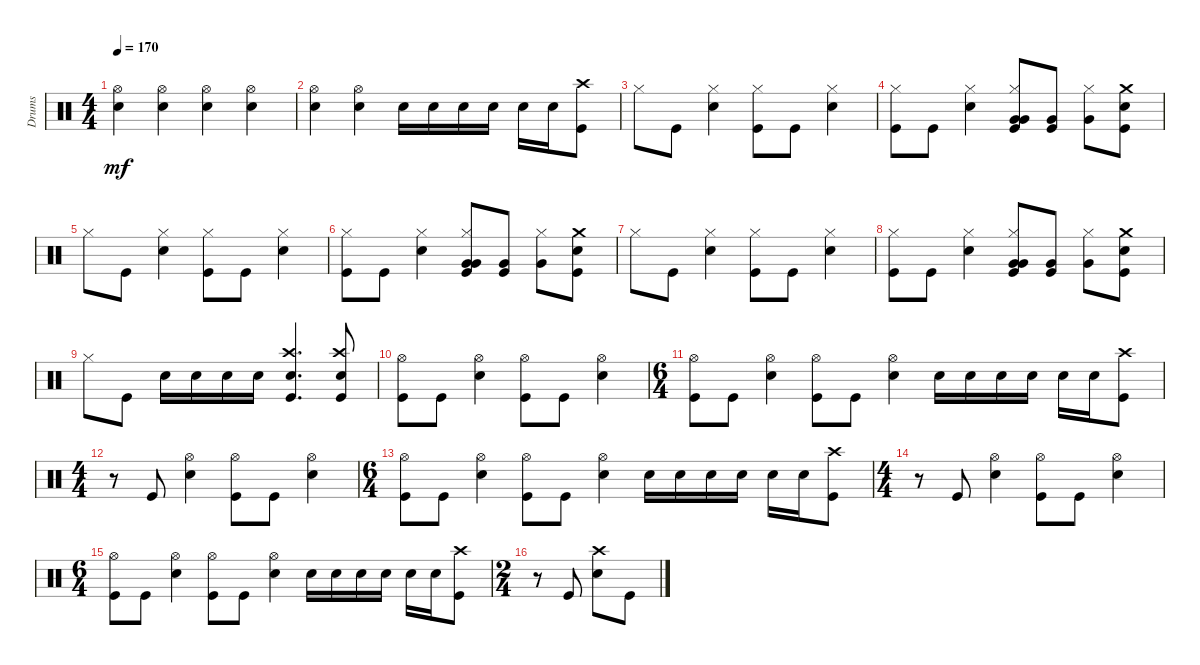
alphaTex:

\track ("Drums" "Drums") {instrument percussion}
\staff {score}
\articulation defaults
\ts (4 4)
\tempo 170
\clef neutral
\ks c
("Electric Snare (hit)" "Hi-Hat (open)").4{dy mf} ("Electric Snare (hit)" "Hi-Hat (open)").4 ("Electric Snare (hit)" "Hi-Hat (open)").4 ("Electric Snare (hit)" "Hi-Hat (open)").4 |
("Electric Snare (hit)" "Hi-Hat (open)").4 ("Electric Snare (hit)" "Hi-Hat (open)").4 "Electric Snare (hit)".16 "Electric Snare (hit)".16 "Electric Snare (hit)".16 "Electric Snare (hit)".16 "Electric Snare (hit)".16 "Electric Snare (hit)".16 ("Crash high (hit)" "Kick (hit)").8 |
"Hi-Hat (closed)".8 "Kick (hit)".8 ("Hi-Hat (closed)" "Electric Snare (hit)").4 ("Hi-Hat (closed)" "Kick (hit)").8 "Kick (hit)".8 ("Hi-Hat (closed)" "Electric Snare (hit)").4 |
("Hi-Hat (closed)" "Kick (hit)").8 "Kick (hit)".8 ("Hi-Hat (closed)" "Electric Snare (hit)").4 ("Very Low Tom (hit)" "Hi-Hat (closed)" "Very Low Tom (hit)" "Kick (hit)").8 ("Very Low Tom (hit)" "Kick (hit)").8 ("Hi-Hat (closed)" "Very Low Tom (hit)").8 ("Crash medium (hit)" "Electric Snare (hit)" "Kick (hit)").8 |
"Hi-Hat (closed)".8 "Kick (hit)".8 ("Hi-Hat (closed)" "Electric Snare (hit)").4 ("Hi-Hat (closed)" "Kick (hit)").8 "Kick (hit)".8 ("Hi-Hat (closed)" "Electric Snare (hit)").4 |
("Hi-Hat (closed)" "Kick (hit)").8 "Kick (hit)".8 ("Hi-Hat (closed)" "Electric Snare (hit)").4 ("Very Low Tom (hit)" "Hi-Hat (closed)" "Very Low Tom (hit)" "Kick (hit)").8 ("Very Low Tom (hit)" "Kick (hit)").8 ("Hi-Hat (closed)" "Very Low Tom (hit)").8 ("Crash medium (hit)" "Electric Snare (hit)" "Kick (hit)").8 |
"Hi-Hat (closed)".8 "Kick (hit)".8 ("Hi-Hat (closed)" "Electric Snare (hit)").4 ("Hi-Hat (closed)" "Kick (hit)").8 "Kick (hit)".8 ("Hi-Hat (closed)" "Electric Snare (hit)").4 |
("Hi-Hat (closed)" "Kick (hit)").8 "Kick (hit)".8 ("Hi-Hat (closed)" "Electric Snare (hit)").4 ("Very Low Tom (hit)" "Hi-Hat (closed)" "Very Low Tom (hit)" "Kick (hit)").8 ("Very Low Tom (hit)" "Kick (hit)").8 ("Hi-Hat (closed)" "Very Low Tom (hit)").8 ("Crash medium (hit)" "Electric Snare (hit)" "Kick (hit)").8 |
"Hi-Hat (closed)".8 "Kick (hit)".8 "Electric Snare (hit)".16 "Electric Snare (hit)".16 "Electric Snare (hit)".16 "Electric Snare (hit)".16 ("Crash high (hit)" "Electric Snare (hit)" "Kick (hit)").4{d} ("Crash high (hit)" "Electric Snare (hit)" "Kick (hit)").8 |
("Hi-Hat (open)" "Kick (hit)").8 "Kick (hit)".8 ("Hi-Hat (open)" "Electric Snare (hit)").4 ("Hi-Hat (open)" "Kick (hit)").8 "Kick (hit)".8 ("Hi-Hat (open)" "Electric Snare (hit)").4 |
\ts (6 4)
("Hi-Hat (open)" "Kick (hit)").8 "Kick (hit)".8 ("Hi-Hat (open)" "Electric Snare (hit)").4 ("Hi-Hat (open)" "Kick (hit)").8 "Kick (hit)".8 ("Hi-Hat (open)" "Electric Snare (hit)").4 "Electric Snare (hit)".16 "Electric Snare (hit)".16 "Electric Snare (hit)".16 "Electric Snare (hit)".16 "Electric Snare (hit)".16 "Electric Snare (hit)".16 ("Crash high (hit)" "Kick (hit)").8 |
\ts (4 4)
r.8 "Kick (hit)".8 ("Hi-Hat (open)" "Electric Snare (hit)").4 ("Hi-Hat (open)" "Kick (hit)").8 "Kick (hit)".8 ("Hi-Hat (open)" "Electric Snare (hit)").4 |
\ts (6 4)
("Hi-Hat (open)" "Kick (hit)").8 "Kick (hit)".8 ("Hi-Hat (open)" "Electric Snare (hit)").4 ("Hi-Hat (open)" "Kick (hit)").8 "Kick (hit)".8 ("Hi-Hat (open)" "Electric Snare (hit)").4 "Electric Snare (hit)".16 "Electric Snare (hit)".16 "Electric Snare (hit)".16 "Electric Snare (hit)".16 "Electric Snare (hit)".16 "Electric Snare (hit)".16 ("Crash high (hit)" "Kick (hit)").8 |
\ts (4 4)
r.8 "Kick (hit)".8 ("Hi-Hat (open)" "Electric Snare (hit)").4 ("Hi-Hat (open)" "Kick (hit)").8 "Kick (hit)".8 ("Hi-Hat (open)" "Electric Snare (hit)").4 |
\ts (6 4)
("Hi-Hat (open)" "Kick (hit)").8 "Kick (hit)".8 ("Hi-Hat (open)" "Electric Snare (hit)").4 ("Hi-Hat (open)" "Kick (hit)").8 "Kick (hit)".8 ("Hi-Hat (open)" "Electric Snare (hit)").4 "Electric Snare (hit)".16 "Electric Snare (hit)".16 "Electric Snare (hit)".16 "Electric Snare (hit)".16 "Electric Snare (hit)".16 "Electric Snare (hit)".16 ("Crash high (hit)" "Kick (hit)").8 |
\ts (2 4)
r.8 "Kick (hit)".8 ("Electric Snare (hit)" "Crash high (hit)").8 "Kick (hit)".8
